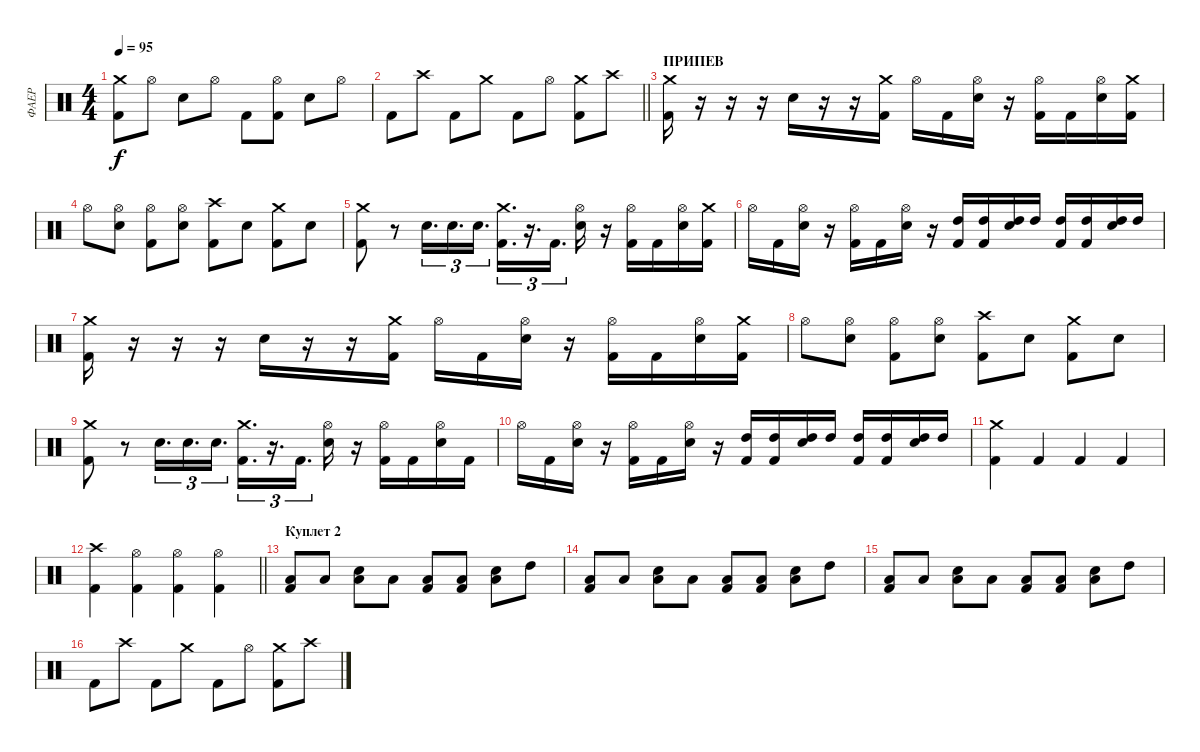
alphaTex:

\track ("ФАЕР" "ФАЕР") {instrument percussion}
\staff {score}
\articulation defaults
\ts (4 4)
\tempo 95
\clef neutral
\ks c
("Crash medium (hit)" "Kick (hit) 2").8{dy f} "Hi-Hat (open)".8 "Electric Snare (hit)".8 "Hi-Hat (open)".8 "Kick (hit) 2".8 ("Hi-Hat (open)" "Kick (hit) 2").8 "Electric Snare (hit)".8 "Hi-Hat (open)".8 |
\barLineRight lightlight "Kick (hit) 2".8 "Crash high (hit)".8 "Kick (hit) 2".8 "Crash medium (hit)".8 "Kick (hit) 2".8 "Hi-Hat (open)".8
("Crash medium (hit)" "Kick (hit) 2").8 "Crash high (hit)".8 |
\section ("" "ПРИПЕВ")
("Crash medium (hit)" "Kick (hit) 2").16 r.16 r.16 r.16 "Electric Snare (hit)".16 r.16 r.16 ("Crash medium (hit)" "Kick (hit) 2").16 "Hi-Hat (open)".16 "Kick (hit) 2".16 ("Hi-Hat (open)" "Electric Snare (hit)").16 r.16 ("Hi-Hat (open)" "Kick (hit) 2").16 "Kick (hit) 2".16 ("Hi-Hat (open)" "Electric Snare (hit)").16 ("Crash medium (hit)" "Kick (hit) 2").16 |
"Hi-Hat (open)".8 ("Hi-Hat (open)" "Electric Snare (hit)").8 ("Hi-Hat (open)" "Kick (hit) 2").8 ("Hi-Hat (open)" "Electric Snare (hit)").8 ("Crash high (hit)" "Kick (hit) 2").8 "Electric Snare (hit)".8 ("Crash medium (hit)" "Kick (hit) 2").8 "Electric Snare (hit)".8 |
("Crash medium (hit)" "Kick (hit) 2").8 r.8 "Electric Snare (hit)".16{d tu (3 2)} "Electric Snare (hit)".16{d tu (3 2)} "Electric Snare (hit)".16{d tu (3 2)} ("Crash medium (hit)" "Kick (hit) 2").16{d tu (3 2)} r.16{d tu (3 2)} "Kick (hit) 2".16{d tu (3 2)} ("Hi-Hat (open)" "Electric Snare (hit)").16 r.16 ("Hi-Hat (open)" "Kick (hit) 2").16 "Kick (hit) 2".16 ("Hi-Hat (open)" "Electric Snare (hit)").16 ("Crash medium (hit)" "Kick (hit) 2").16 |
"Hi-Hat (open)".16 "Kick (hit) 2".16 ("Hi-Hat (open)" "Electric Snare (hit)").16 r.16 ("Hi-Hat (open)" "Kick (hit) 2").16 "Kick (hit) 2".16 ("Hi-Hat (open)" "Electric Snare (hit)").16 r.16 ("High Tom (hit)" "Kick (hit) 2").16 ("High Tom (hit)" "Kick (hit) 2").16 ("High Tom (hit)" "Electric Snare (hit)").16 "High Tom (hit)".16 ("High Tom (hit)" "Kick (hit) 2").16 ("High Tom (hit)" "Kick (hit) 2").16 ("High Tom (hit)" "Electric Snare (hit)").16 "High Tom (hit)".16 |
("Crash medium (hit)" "Kick (hit) 2").16 r.16 r.16 r.16 "Electric Snare (hit)".16 r.16 r.16 ("Crash medium (hit)" "Kick (hit) 2").16 "Hi-Hat (open)".16 "Kick (hit) 2".16 ("Hi-Hat (open)" "Electric Snare (hit)").16 r.16 ("Hi-Hat (open)" "Kick (hit) 2").16 "Kick (hit) 2".16 ("Hi-Hat (open)" "Electric Snare (hit)").16 ("Crash medium (hit)" "Kick (hit) 2").16 |
"Hi-Hat (open)".8 ("Hi-Hat (open)" "Electric Snare (hit)").8 ("Hi-Hat (open)" "Kick (hit) 2").8 ("Hi-Hat (open)" "Electric Snare (hit)").8 ("Crash high (hit)" "Kick (hit) 2").8 "Electric Snare (hit)".8 ("Crash medium (hit)" "Kick (hit) 2").8 "Electric Snare (hit)".8 |
("Crash medium (hit)" "Kick (hit) 2").8 r.8 "Electric Snare (hit)".16{d tu (3 2)} "Electric Snare (hit)".16{d tu (3 2)} "Electric Snare (hit)".16{d tu (3 2)} ("Crash medium (hit)" "Kick (hit) 2").16{d tu (3 2)} r.16{d tu (3 2)} "Kick (hit) 2".16{d tu (3 2)} ("Hi-Hat (open)" "Electric Snare (hit)").16 r.16 ("Hi-Hat (open)" "Kick (hit) 2").16 "Kick (hit) 2".16 ("Hi-Hat (open)" "Electric Snare (hit)").16 "Kick (hit) 2".16 |
"Hi-Hat (open)".16 "Kick (hit) 2".16 ("Hi-Hat (open)" "Electric Snare (hit)").16 r.16 ("Hi-Hat (open)" "Kick (hit) 2").16 "Kick (hit) 2".16 ("Hi-Hat (open)" "Electric Snare (hit)").16 r.16 ("High Tom (hit)" "Kick (hit) 2").16 ("High Tom (hit)" "Kick (hit) 2").16 ("High Tom (hit)" "Electric Snare (hit)").16 "High Tom (hit)".16 ("High Tom (hit)" "Kick (hit) 2").16 ("High Tom (hit)" "Kick (hit) 2").16 ("High Tom (hit)" "Electric Snare (hit)").16 "High Tom (hit)".16 |
("Crash medium (hit)" "Kick (hit) 2").4 "Kick (hit) 2".4 "Kick (hit) 2".4 "Kick (hit) 2".4 |
\barLineRight lightlight
("Crash high (hit)" "Kick (hit) 2").4 ("Hi-Hat (open)" "Kick (hit) 2").4 ("Hi-Hat (open)" "Kick (hit) 2").4 ("Hi-Hat (open)" "Kick (hit) 2").4 |
\section ("" "Куплет 2")
("Low Tom (hit)" "Kick (hit) 2").8 "Low Tom (hit)".8 ("Low Tom (hit)" "Electric Snare (hit)").8 "Low Tom (hit)".8 ("Low Tom (hit)" "Kick (hit) 2").8 ("Low Tom (hit)" "Kick (hit) 2").8 ("Low Tom (hit)" "Electric Snare (hit)").8 "High Tom (hit)".8 |
("Low Tom (hit)" "Kick (hit) 2").8 "Low Tom (hit)".8 ("Low Tom (hit)" "Electric Snare (hit)").8 "Low Tom (hit)".8 ("Low Tom (hit)" "Kick (hit) 2").8 ("Low Tom (hit)" "Kick (hit) 2").8 ("Low Tom (hit)" "Electric Snare (hit)").8 "High Tom (hit)".8 |
("Low Tom (hit)" "Kick (hit) 2").8 "Low Tom (hit)".8 ("Low Tom (hit)" "Electric Snare (hit)").8 "Low Tom (hit)".8 ("Low Tom (hit)" "Kick (hit) 2").8 ("Low Tom (hit)" "Kick (hit) 2").8 ("Low Tom (hit)" "Electric Snare (hit)").8 "High Tom (hit)".8 |
"Kick (hit) 2".8 "Crash high (hit)".8 "Kick (hit) 2".8 "Crash medium (hit)".8 "Kick (hit) 2".8 "Hi-Hat (open)".8 ("Crash medium (hit)" "Kick (hit) 2").8 "Crash high (hit)".8
